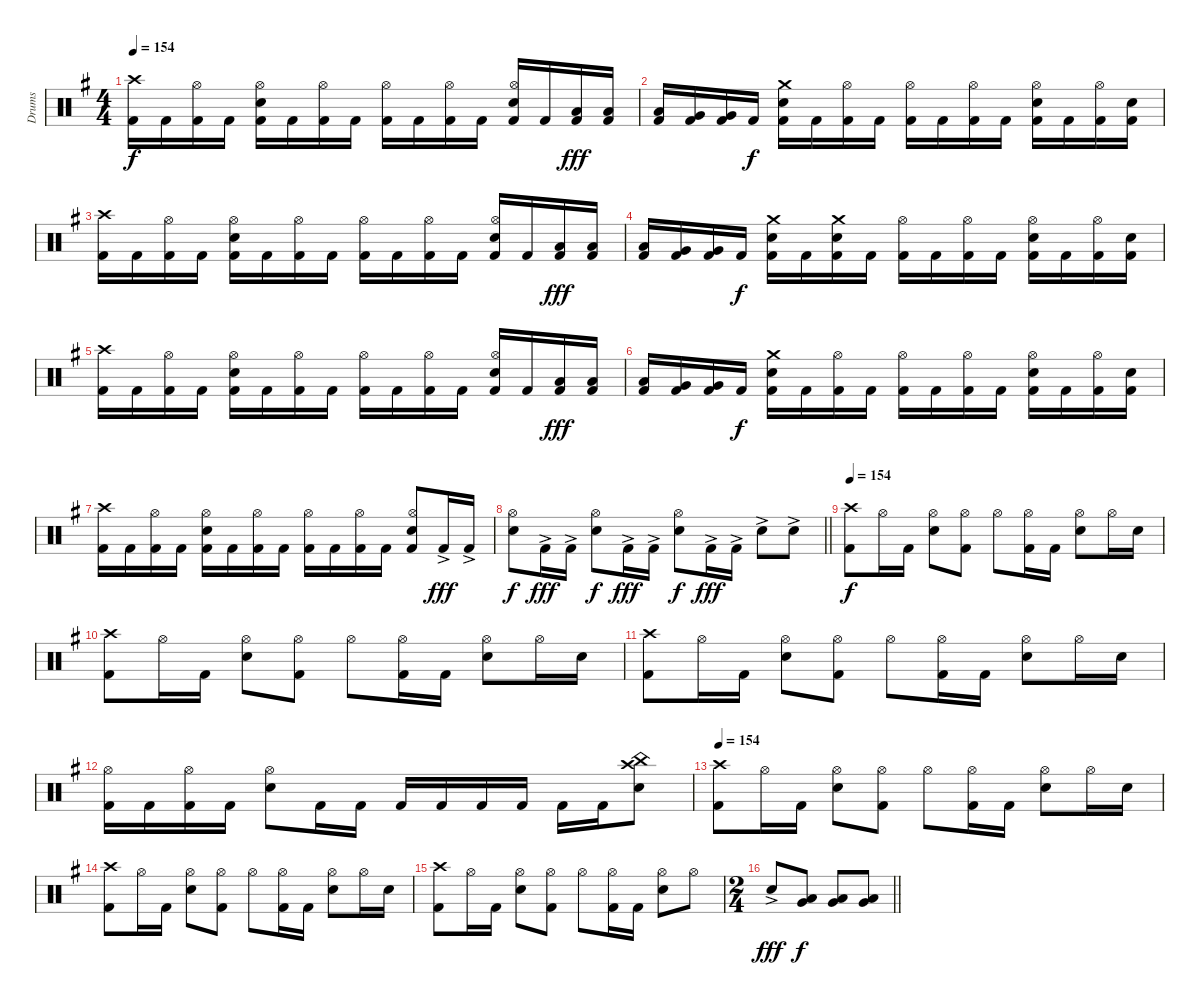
\track ("Drums" "Drums") {instrument percussion}
\staff {score}
\articulation defaults
\ts (4 4)
\tempo 154
\clef neutral
\ks eminor
("Crash high (hit)" "Kick (hit) 2").16{dy f} "Kick (hit) 2".16 ("Hi-Hat (open)" "Kick (hit) 2").16 "Kick (hit) 2".16 ("Hi-Hat (open)" "Snare (hit) 2" "Kick (hit) 2").16 "Kick (hit) 2".16 ("Hi-Hat (open)" "Kick (hit) 2").16 "Kick (hit) 2".16 ("Hi-Hat (open)" "Kick (hit) 2").16 "Kick (hit) 2".16 ("Hi-Hat (open)" "Kick (hit) 2").16 "Kick (hit) 2".16 ("Hi-Hat (open)" "Snare (hit) 2" "Kick (hit) 2").16 "Kick (hit) 2".16 ("Low Tom (hit)" "Kick (hit) 2").16{dy fff} ("Low Tom (hit)" "Kick (hit) 2").16 |
("Low Tom (hit)" "Kick (hit) 2").16 ("Very Low Tom (hit)" "Kick (hit) 2").16 ("Very Low Tom (hit)" "Kick (hit) 2").16 "Kick (hit) 2".16{dy f} ("Crash medium (hit)" "Snare (hit) 2" "Kick (hit) 2").16 "Kick (hit) 2".16 ("Hi-Hat (open)" "Kick (hit) 2").16 "Kick (hit) 2".16 ("Hi-Hat (open)" "Kick (hit) 2").16 "Kick (hit) 2".16 ("Hi-Hat (open)" "Kick (hit) 2").16 "Kick (hit) 2".16 ("Hi-Hat (open)" "Snare (hit) 2" "Kick (hit) 2").16 "Kick (hit) 2".16 ("Hi-Hat (open)" "Kick (hit) 2").16 ("Snare (hit) 2" "Kick (hit) 2").16 |
("Crash high (hit)" "Kick (hit) 2").16 "Kick (hit) 2".16 ("Hi-Hat (open)" "Kick (hit) 2").16 "Kick (hit) 2".16 ("Hi-Hat (open)" "Snare (hit) 2" "Kick (hit) 2").16 "Kick (hit) 2".16 ("Hi-Hat (open)" "Kick (hit) 2").16 "Kick (hit) 2".16 ("Hi-Hat (open)" "Kick (hit) 2").16 "Kick (hit) 2".16 ("Hi-Hat (open)" "Kick (hit) 2").16 "Kick (hit) 2".16 ("Hi-Hat (open)" "Snare (hit) 2" "Kick (hit) 2").16 "Kick (hit) 2".16 ("Low Tom (hit)" "Kick (hit) 2").16{dy fff} ("Low Tom (hit)" "Kick (hit) 2").16 |
("Low Tom (hit)" "Kick (hit) 2").16 ("Very Low Tom (hit)" "Kick (hit) 2").16 ("Very Low Tom (hit)" "Kick (hit) 2").16 "Kick (hit) 2".16{dy f} ("Crash medium (hit)" "Snare (hit) 2" "Kick (hit) 2").16 "Kick (hit) 2".16 ("Crash medium (hit)" "Snare (hit) 2" "Kick (hit) 2").16 "Kick (hit) 2".16 ("Hi-Hat (open)" "Kick (hit) 2").16 "Kick (hit) 2".16 ("Hi-Hat (open)" "Kick (hit) 2").16 "Kick (hit) 2".16 ("Hi-Hat (open)" "Snare (hit) 2" "Kick (hit) 2").16 "Kick (hit) 2".16 ("Hi-Hat (open)" "Kick (hit) 2").16 ("Snare (hit) 2" "Kick (hit) 2").16 |
("Crash high (hit)" "Kick (hit) 2").16 "Kick (hit) 2".16 ("Hi-Hat (open)" "Kick (hit) 2").16 "Kick (hit) 2".16 ("Hi-Hat (open)" "Snare (hit) 2" "Kick (hit) 2").16 "Kick (hit) 2".16 ("Hi-Hat (open)" "Kick (hit) 2").16 "Kick (hit) 2".16 ("Hi-Hat (open)" "Kick (hit) 2").16 "Kick (hit) 2".16 ("Hi-Hat (open)" "Kick (hit) 2").16 "Kick (hit) 2".16 ("Hi-Hat (open)" "Snare (hit) 2" "Kick (hit) 2").16 "Kick (hit) 2".16 ("Low Tom (hit)" "Kick (hit) 2").16{dy fff} ("Low Tom (hit)" "Kick (hit) 2").16 |
("Low Tom (hit)" "Kick (hit) 2").16 ("Very Low Tom (hit)" "Kick (hit) 2").16 ("Very Low Tom (hit)" "Kick (hit) 2").16 "Kick (hit) 2".16{dy f} ("Crash medium (hit)" "Snare (hit) 2" "Kick (hit) 2").16 "Kick (hit) 2".16 ("Hi-Hat (open)" "Kick (hit) 2").16 "Kick (hit) 2".16 ("Hi-Hat (open)" "Kick (hit) 2").16 "Kick (hit) 2".16 ("Hi-Hat (open)" "Kick (hit) 2").16 "Kick (hit) 2".16 ("Hi-Hat (open)" "Snare (hit) 2" "Kick (hit) 2").16 "Kick (hit) 2".16 ("Hi-Hat (open)" "Kick (hit) 2").16 ("Snare (hit) 2" "Kick (hit) 2").16 |
("Crash high (hit)" "Kick (hit) 2").16 "Kick (hit) 2".16 ("Hi-Hat (open)" "Kick (hit) 2").16 "Kick (hit) 2".16 ("Hi-Hat (open)" "Snare (hit) 2" "Kick (hit) 2").16 "Kick (hit) 2".16 ("Hi-Hat (open)" "Kick (hit) 2").16 "Kick (hit) 2".16 ("Hi-Hat (open)" "Kick (hit) 2").16 "Kick (hit) 2".16 ("Hi-Hat (open)" "Kick (hit) 2").16 "Kick (hit) 2".16 ("Hi-Hat (open)" "Snare (hit) 2" "Kick (hit) 2").8 "Kick (hit) 2"{ac}.16{dy fff} "Kick (hit) 2"{ac}.16 |
\barLineRight lightlight
("Hi-Hat (open)" "Snare (hit) 2").8{dy f} "Kick (hit) 2"{ac}.16{dy fff} "Kick (hit) 2"{ac}.16 ("Hi-Hat (open)" "Snare (hit) 2").8{dy f} "Kick (hit) 2"{ac}.16{dy fff} "Kick (hit) 2"{ac}.16 ("Hi-Hat (open)" "Snare (hit) 2").8{dy f} "Kick (hit) 2"{ac}.16{dy fff} "Kick (hit) 2"{ac}.16 "Snare (hit) 2"{ac}.8 "Snare (hit) 2"{ac}.8 |
\tempo 154
("Crash high (hit)" "Kick (hit) 2").8{dy f} "Hi-Hat (open)".16 "Kick (hit) 2".16 ("Hi-Hat (open)" "Snare (hit) 2").8 ("Hi-Hat (open)" "Kick (hit) 2").8 "Hi-Hat (open)".8 ("Hi-Hat (open)" "Kick (hit) 2").16 "Kick (hit) 2".16 ("Hi-Hat (open)" "Snare (hit) 2").8 "Hi-Hat (open)".16 "Snare (hit) 2".16 |
("Crash high (hit)" "Kick (hit) 2").8 "Hi-Hat (open)".16 "Kick (hit) 2".16 ("Hi-Hat (open)" "Snare (hit) 2").8 ("Hi-Hat (open)" "Kick (hit) 2").8 "Hi-Hat (open)".8 ("Hi-Hat (open)" "Kick (hit) 2").16 "Kick (hit) 2".16 ("Hi-Hat (open)" "Snare (hit) 2").8 "Hi-Hat (open)".16 "Snare (hit) 2".16 |
("Crash high (hit)" "Kick (hit) 2").8 "Hi-Hat (open)".16 "Kick (hit) 2".16 ("Hi-Hat (open)" "Snare (hit) 2").8 ("Hi-Hat (open)" "Kick (hit) 2").8 "Hi-Hat (open)".8 ("Hi-Hat (open)" "Kick (hit) 2").16 "Kick (hit) 2".16 ("Hi-Hat (open)" "Snare (hit) 2").8 "Hi-Hat (open)".16 "Snare (hit) 2".16 |
("Hi-Hat (open)" "Kick (hit) 2").16 "Kick (hit) 2".16 ("Hi-Hat (open)" "Kick (hit) 2").16 "Kick (hit) 2".16 ("Hi-Hat (open)" "Snare (hit) 2").8 "Kick (hit) 2".16 "Kick (hit) 2".16 "Kick (hit) 2".16 "Kick (hit) 2".16 "Kick (hit) 2".16 "Kick (hit) 2".16 "Kick (hit) 2".16 "Kick (hit) 2".16 ("China (hit)" "Crash high (hit)" "Snare (hit) 2").8 |
\tempo 154
("Crash high (hit)" "Kick (hit) 2").8 "Hi-Hat (open)".16 "Kick (hit) 2".16 ("Hi-Hat (open)" "Snare (hit) 2").8 ("Hi-Hat (open)" "Kick (hit) 2").8 "Hi-Hat (open)".8 ("Hi-Hat (open)" "Kick (hit) 2").16 "Kick (hit) 2".16 ("Hi-Hat (open)" "Snare (hit) 2").8 "Hi-Hat (open)".16 "Snare (hit) 2".16 |
("Crash high (hit)" "Kick (hit) 2").8 "Hi-Hat (open)".16 "Kick (hit) 2".16 ("Hi-Hat (open)" "Snare (hit) 2").8 ("Hi-Hat (open)" "Kick (hit) 2").8 "Hi-Hat (open)".8 ("Hi-Hat (open)" "Kick (hit) 2").16 "Kick (hit) 2".16 ("Hi-Hat (open)" "Snare (hit) 2").8 "Hi-Hat (open)".16 "Snare (hit) 2".16 |
("Crash high (hit)" "Kick (hit) 2").8 "Hi-Hat (open)".16 "Kick (hit) 2".16 ("Hi-Hat (open)" "Snare (hit) 2").8 ("Hi-Hat (open)" "Kick (hit) 2").8 "Hi-Hat (open)".8 ("Hi-Hat (open)" "Kick (hit) 2").16 "Kick (hit) 2".16 ("Hi-Hat (open)" "Snare (hit) 2").8 "Hi-Hat (open)".8 |
\ts (2 4)
\barLineRight lightlight "Snare (hit) 2"{ac}.8{dy fff}
("Low Tom (hit)" "Very Low Tom (hit)").8{dy f} ("Low Tom (hit)" "Very Low Tom (hit)").8 ("Low Tom (hit)" "Very Low Tom (hit)").8
